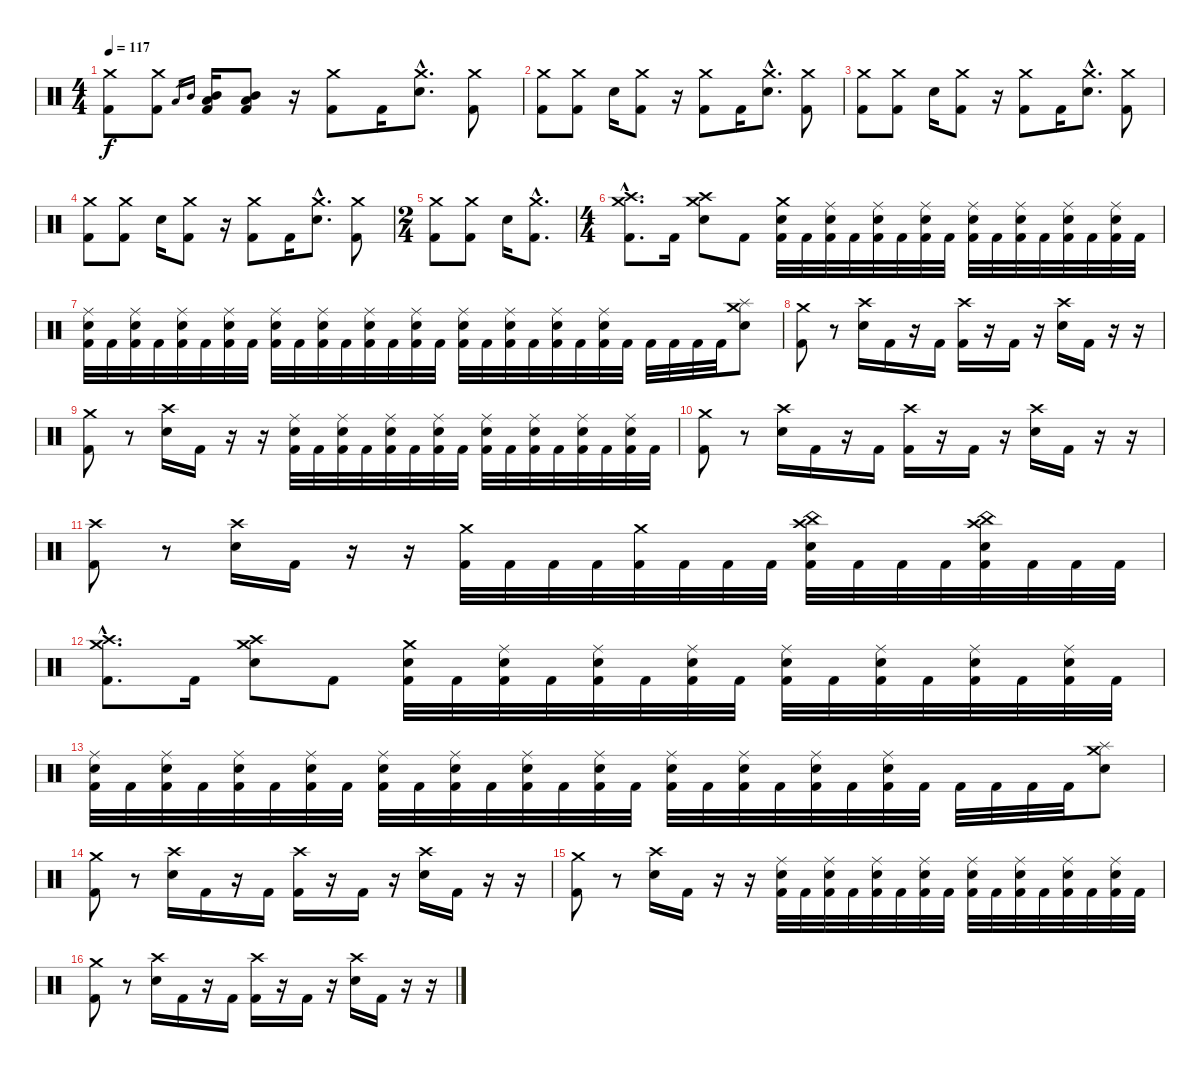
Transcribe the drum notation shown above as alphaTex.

\track "" {instrument percussion}
\staff {score}
\articulation defaults
\ts (4 4)
\tempo 117
\clef neutral
\ks c
("Kick (hit) 2" "Crash medium (hit)").8{dy f} ("Kick (hit) 2" "Crash medium (hit)").8 "Low Tom (hit)".16{gr} "Mid Tom (hit)".16{gr} ("Low Tom (hit)" "Mid Tom (hit)" "Kick (hit) 2").16 ("Low Tom (hit)" "Mid Tom (hit)" "Kick (hit) 2").8 r.16 ("Kick (hit) 2" "Crash medium (hit)").8 "Kick (hit) 2".16 ("Electric Snare (hit)"{hac} "Crash medium (hit)"{hac}).8{d} ("Kick (hit) 2" "Crash medium (hit)").8 |
("Kick (hit) 2" "Crash medium (hit)").8 ("Kick (hit) 2" "Crash medium (hit)").8 "Electric Snare (hit)".16 ("Kick (hit) 2" "Crash medium (hit)").8 r.16 ("Kick (hit) 2" "Crash medium (hit)").8 "Kick (hit) 2".16 ("Electric Snare (hit)"{hac} "Crash medium (hit)"{hac}).8{d} ("Kick (hit) 2" "Crash medium (hit)").8 |
("Kick (hit) 2" "Crash medium (hit)").8 ("Kick (hit) 2" "Crash medium (hit)").8 "Electric Snare (hit)".16 ("Kick (hit) 2" "Crash medium (hit)").8 r.16 ("Kick (hit) 2" "Crash medium (hit)").8 "Kick (hit) 2".16 ("Electric Snare (hit)"{hac} "Crash medium (hit)"{hac}).8{d} ("Kick (hit) 2" "Crash medium (hit)").8 |
("Kick (hit) 2" "Crash medium (hit)").8 ("Kick (hit) 2" "Crash medium (hit)").8 "Electric Snare (hit)".16 ("Kick (hit) 2" "Crash medium (hit)").8 r.16 ("Kick (hit) 2" "Crash medium (hit)").8 "Kick (hit) 2".16 ("Electric Snare (hit)"{hac} "Crash medium (hit)"{hac}).8{d} ("Kick (hit) 2" "Crash medium (hit)").8 |
\ts (2 4)
("Kick (hit) 2" "Crash medium (hit)").8 ("Kick (hit) 2" "Crash medium (hit)").8 "Electric Snare (hit)".16 ("Kick (hit) 2"{hac} "Crash medium (hit)"{hac}).8{d} |
\ts (4 4)
("Kick (hit) 2"{hac} "Crash high (hit)"{hac} "Crash medium (hit)"{hac}).8{d} "Kick (hit) 2".16 ("Electric Snare (hit)" "Crash high (hit)" "Crash medium (hit)").8 "Kick (hit) 2".8 ("Kick (hit) 2" "Electric Snare (hit)" "Crash medium (hit)").32 "Kick (hit) 2".32 ("Kick (hit) 2" "Electric Snare (hit)" "Ride (middle)").32 "Kick (hit) 2".32 ("Kick (hit) 2" "Electric Snare (hit)" "Ride (middle)").32 "Kick (hit) 2".32 ("Kick (hit) 2" "Electric Snare (hit)" "Ride (middle)").32 "Kick (hit) 2".32 ("Kick (hit) 2" "Electric Snare (hit)" "Ride (middle)").32 "Kick (hit) 2".32 ("Kick (hit) 2" "Electric Snare (hit)" "Ride (middle)").32 "Kick (hit) 2".32 ("Kick (hit) 2" "Electric Snare (hit)" "Ride (middle)").32 "Kick (hit) 2".32 ("Kick (hit) 2" "Electric Snare (hit)" "Ride (middle)").32 "Kick (hit) 2".32 |
("Electric Snare (hit)" "Ride (middle)" "Kick (hit) 2").32 "Kick (hit) 2".32 ("Electric Snare (hit)" "Ride (middle)" "Kick (hit) 2").32 "Kick (hit) 2".32 ("Electric Snare (hit)" "Ride (middle)" "Kick (hit) 2").32 "Kick (hit) 2".32 ("Electric Snare (hit)" "Ride (middle)" "Kick (hit) 2").32 "Kick (hit) 2".32 ("Electric Snare (hit)" "Ride (middle)" "Kick (hit) 2").32 "Kick (hit) 2".32 ("Electric Snare (hit)" "Ride (middle)" "Kick (hit) 2").32 "Kick (hit) 2".32 ("Electric Snare (hit)" "Ride (middle)" "Kick (hit) 2").32 "Kick (hit) 2".32 ("Electric Snare (hit)" "Ride (middle)" "Kick (hit) 2").32 "Kick (hit) 2".32 ("Electric Snare (hit)" "Ride (middle)" "Kick (hit) 2").32 "Kick (hit) 2".32 ("Electric Snare (hit)" "Ride (middle)" "Kick (hit) 2").32 "Kick (hit) 2".32 ("Electric Snare (hit)" "Ride (middle)" "Kick (hit) 2").32 "Kick (hit) 2".32 ("Electric Snare (hit)" "Ride (middle)" "Kick (hit) 2").32 "Kick (hit) 2".32 "Kick (hit) 2".32 "Kick (hit) 2".32 "Kick (hit) 2".32 "Kick (hit) 2".32 ("Crash medium (hit)" "Splash (hit)" "Electric Snare (hit)").8 |
("Kick (hit) 2" "Crash medium (hit)").8 r.8 ("Electric Snare (hit)" "Crash high (hit)").16 "Kick (hit) 2".16 r.16 "Kick (hit) 2".16 ("Kick (hit) 2" "Crash high (hit)").16 r.16 "Kick (hit) 2".16 r.16 ("Electric Snare (hit)" "Crash high (hit)").16 "Kick (hit) 2".16 r.16 r.16 |
("Kick (hit) 2" "Crash medium (hit)").8 r.8 ("Electric Snare (hit)" "Crash high (hit)").16 "Kick (hit) 2".16 r.16 r.16 ("Kick (hit) 2" "Electric Snare (hit)" "Ride (middle)").32 "Kick (hit) 2".32 ("Kick (hit) 2" "Electric Snare (hit)" "Ride (middle)").32 "Kick (hit) 2".32 ("Kick (hit) 2" "Electric Snare (hit)" "Ride (middle)").32 "Kick (hit) 2".32 ("Kick (hit) 2" "Electric Snare (hit)" "Ride (middle)").32 "Kick (hit) 2".32 ("Kick (hit) 2" "Electric Snare (hit)" "Ride (middle)").32 "Kick (hit) 2".32 ("Kick (hit) 2" "Electric Snare (hit)" "Ride (middle)").32 "Kick (hit) 2".32 ("Kick (hit) 2" "Electric Snare (hit)" "Ride (middle)").32 "Kick (hit) 2".32 ("Kick (hit) 2" "Electric Snare (hit)" "Ride (middle)").32 "Kick (hit) 2".32 |
("Kick (hit) 2" "Crash medium (hit)").8 r.8 ("Electric Snare (hit)" "Crash high (hit)").16 "Kick (hit) 2".16 r.16 "Kick (hit) 2".16 ("Kick (hit) 2" "Crash high (hit)").16 r.16 "Kick (hit) 2".16 r.16 ("Electric Snare (hit)" "Crash high (hit)").16 "Kick (hit) 2".16 r.16 r.16 |
("Kick (hit) 2" "Crash high (hit)").8 r.8 ("Electric Snare (hit)" "Crash high (hit)").16 "Kick (hit) 2".16 r.16 r.16 ("Kick (hit) 2" "Crash medium (hit)").32 "Kick (hit) 2".32 "Kick (hit) 2".32 "Kick (hit) 2".32 ("Kick (hit) 2" "Crash medium (hit)").32 "Kick (hit) 2".32 "Kick (hit) 2".32 "Kick (hit) 2".32 ("Kick (hit) 2" "Electric Snare (hit)" "Crash high (hit)" "China (hit)").32 "Kick (hit) 2".32 "Kick (hit) 2".32 "Kick (hit) 2".32 ("Kick (hit) 2" "Electric Snare (hit)" "Crash high (hit)" "China (hit)").32 "Kick (hit) 2".32 "Kick (hit) 2".32 "Kick (hit) 2".32 |
("Kick (hit) 2"{hac} "Crash high (hit)"{hac} "Crash medium (hit)"{hac}).8{d} "Kick (hit) 2".16 ("Electric Snare (hit)" "Crash high (hit)" "Crash medium (hit)").8 "Kick (hit) 2".8 ("Kick (hit) 2" "Electric Snare (hit)" "Crash medium (hit)").32 "Kick (hit) 2".32 ("Kick (hit) 2" "Electric Snare (hit)" "Ride (middle)").32 "Kick (hit) 2".32 ("Kick (hit) 2" "Electric Snare (hit)" "Ride (middle)").32 "Kick (hit) 2".32 ("Kick (hit) 2" "Electric Snare (hit)" "Ride (middle)").32 "Kick (hit) 2".32 ("Kick (hit) 2" "Electric Snare (hit)" "Ride (middle)").32 "Kick (hit) 2".32 ("Kick (hit) 2" "Electric Snare (hit)" "Ride (middle)").32 "Kick (hit) 2".32 ("Kick (hit) 2" "Electric Snare (hit)" "Ride (middle)").32 "Kick (hit) 2".32 ("Kick (hit) 2" "Electric Snare (hit)" "Ride (middle)").32 "Kick (hit) 2".32 |
("Electric Snare (hit)" "Ride (middle)" "Kick (hit) 2").32 "Kick (hit) 2".32 ("Electric Snare (hit)" "Ride (middle)" "Kick (hit) 2").32 "Kick (hit) 2".32 ("Electric Snare (hit)" "Ride (middle)" "Kick (hit) 2").32 "Kick (hit) 2".32 ("Electric Snare (hit)" "Ride (middle)" "Kick (hit) 2").32 "Kick (hit) 2".32 ("Electric Snare (hit)" "Ride (middle)" "Kick (hit) 2").32 "Kick (hit) 2".32 ("Electric Snare (hit)" "Ride (middle)" "Kick (hit) 2").32 "Kick (hit) 2".32 ("Electric Snare (hit)" "Ride (middle)" "Kick (hit) 2").32 "Kick (hit) 2".32 ("Electric Snare (hit)" "Ride (middle)" "Kick (hit) 2").32 "Kick (hit) 2".32 ("Electric Snare (hit)" "Ride (middle)" "Kick (hit) 2").32 "Kick (hit) 2".32 ("Electric Snare (hit)" "Ride (middle)" "Kick (hit) 2").32 "Kick (hit) 2".32 ("Electric Snare (hit)" "Ride (middle)" "Kick (hit) 2").32 "Kick (hit) 2".32 ("Electric Snare (hit)" "Ride (middle)" "Kick (hit) 2").32 "Kick (hit) 2".32 "Kick (hit) 2".32 "Kick (hit) 2".32 "Kick (hit) 2".32 "Kick (hit) 2".32 ("Crash medium (hit)" "Splash (hit)" "Electric Snare (hit)").8 |
("Kick (hit) 2" "Crash medium (hit)").8 r.8 ("Electric Snare (hit)" "Crash high (hit)").16 "Kick (hit) 2".16 r.16 "Kick (hit) 2".16 ("Kick (hit) 2" "Crash high (hit)").16 r.16 "Kick (hit) 2".16 r.16 ("Electric Snare (hit)" "Crash high (hit)").16 "Kick (hit) 2".16 r.16 r.16 |
("Kick (hit) 2" "Crash medium (hit)").8 r.8 ("Electric Snare (hit)" "Crash high (hit)").16 "Kick (hit) 2".16 r.16 r.16 ("Kick (hit) 2" "Electric Snare (hit)" "Ride (middle)").32 "Kick (hit) 2".32 ("Kick (hit) 2" "Electric Snare (hit)" "Ride (middle)").32 "Kick (hit) 2".32 ("Kick (hit) 2" "Electric Snare (hit)" "Ride (middle)").32 "Kick (hit) 2".32 ("Kick (hit) 2" "Electric Snare (hit)" "Ride (middle)").32 "Kick (hit) 2".32 ("Kick (hit) 2" "Electric Snare (hit)" "Ride (middle)").32 "Kick (hit) 2".32 ("Kick (hit) 2" "Electric Snare (hit)" "Ride (middle)").32 "Kick (hit) 2".32 ("Kick (hit) 2" "Electric Snare (hit)" "Ride (middle)").32 "Kick (hit) 2".32 ("Kick (hit) 2" "Electric Snare (hit)" "Ride (middle)").32 "Kick (hit) 2".32 |
("Kick (hit) 2" "Crash medium (hit)").8 r.8 ("Electric Snare (hit)" "Crash high (hit)").16 "Kick (hit) 2".16 r.16 "Kick (hit) 2".16 ("Kick (hit) 2" "Crash high (hit)").16 r.16 "Kick (hit) 2".16 r.16 ("Electric Snare (hit)" "Crash high (hit)").16 "Kick (hit) 2".16 r.16 r.16
